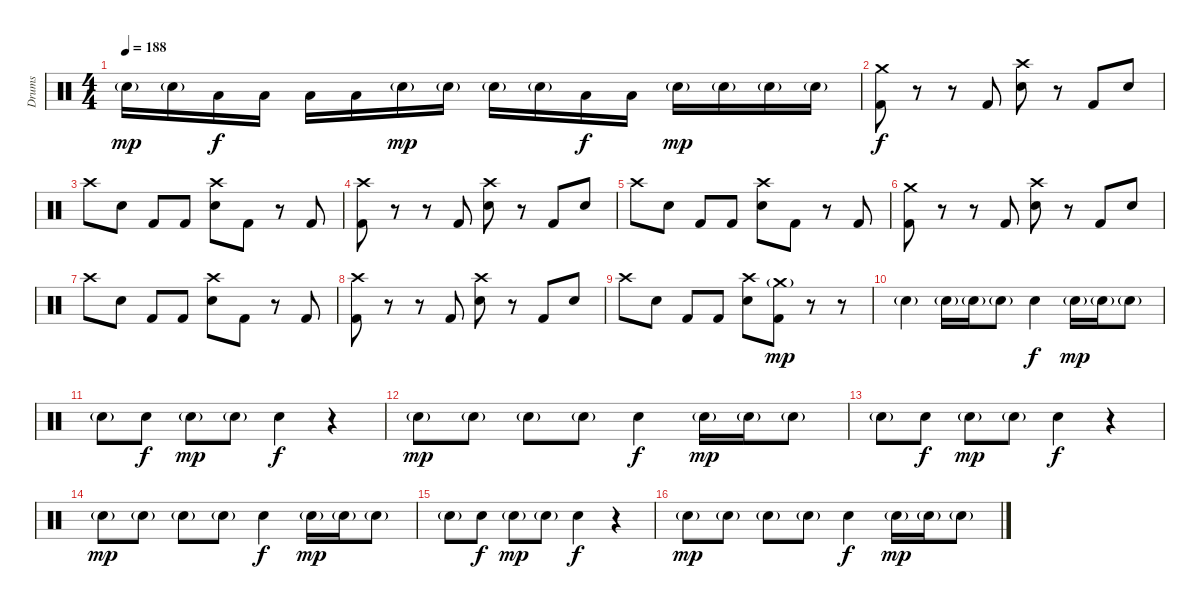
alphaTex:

\track ("Drums" "Drums") {instrument percussion}
\staff {score}
\articulation defaults
\ts (4 4)
\tempo 188
\clef neutral
\ks c "Electric Snare (hit)"{g}.16{dy mp} "Electric Snare (hit)"{g}.16 "Low Tom (hit)".16{dy f} "Low Tom (hit)".16 "Low Tom (hit)".16 "Low Tom (hit)".16 "Electric Snare (hit)"{g}.16{dy mp} "Electric Snare (hit)"{g}.16 "Electric Snare (hit)"{g}.16 "Electric Snare (hit)"{g}.16 "Low Tom (hit)".16{dy f} "Low Tom (hit)".16 "Electric Snare (hit)"{g}.16{dy mp} "Electric Snare (hit)"{g}.16 "Electric Snare (hit)"{g}.16 "Electric Snare (hit)"{g}.16
|
("Crash medium (hit)" "Kick (hit) 2").8{dy f} r.8 r.8 "Kick (hit) 2".8 ("Crash high (hit)" "Electric Snare (hit)").8 r.8 "Kick (hit) 2".8 "Electric Snare (hit)".8 |
"Crash high (hit)".8 "Electric Snare (hit)".8 "Kick (hit) 2".8 "Kick (hit) 2".8 ("Crash high (hit)" "Electric Snare (hit)").8 "Kick (hit) 2".8 r.8 "Kick (hit) 2".8 |
("Crash high (hit)" "Kick (hit) 2").8 r.8 r.8 "Kick (hit) 2".8 ("Crash high (hit)" "Electric Snare (hit)").8 r.8 "Kick (hit) 2".8 "Electric Snare (hit)".8 |
"Crash high (hit)".8 "Electric Snare (hit)".8 "Kick (hit) 2".8 "Kick (hit) 2".8 ("Crash high (hit)" "Electric Snare (hit)").8 "Kick (hit) 2".8 r.8 "Kick (hit) 2".8 |
("Crash medium (hit)" "Kick (hit) 2").8 r.8 r.8 "Kick (hit) 2".8 ("Crash high (hit)" "Electric Snare (hit)").8 r.8 "Kick (hit) 2".8 "Electric Snare (hit)".8 |
"Crash high (hit)".8 "Electric Snare (hit)".8 "Kick (hit) 2".8 "Kick (hit) 2".8 ("Crash high (hit)" "Electric Snare (hit)").8 "Kick (hit) 2".8 r.8 "Kick (hit) 2".8 |
("Crash high (hit)" "Kick (hit) 2").8 r.8 r.8 "Kick (hit) 2".8 ("Crash high (hit)" "Electric Snare (hit)").8 r.8 "Kick (hit) 2".8 "Electric Snare (hit)".8 |
"Crash high (hit)".8 "Electric Snare (hit)".8 "Kick (hit) 2".8 "Kick (hit) 2".8 ("Crash high (hit)" "Electric Snare (hit)").8 ("Crash medium (hit)"{g} "Kick (hit) 2").8{dy mp} r.8 r.8 |
"Electric Snare (hit)"{g}.4 "Electric Snare (hit)"{g}.16 "Electric Snare (hit)"{g}.16 "Electric Snare (hit)"{g}.8 "Electric Snare (hit)".4{dy f} "Electric Snare (hit)"{g}.16{dy mp} "Electric Snare (hit)"{g}.16 "Electric Snare (hit)"{g}.8 |
"Electric Snare (hit)"{g}.8 "Electric Snare (hit)".8{dy f} "Electric Snare (hit)"{g}.8{dy mp} "Electric Snare (hit)"{g}.8 "Electric Snare (hit)".4{dy f} r.4 |
"Electric Snare (hit)"{g}.8{dy mp} "Electric Snare (hit)"{g}.8 "Electric Snare (hit)"{g}.8 "Electric Snare (hit)"{g}.8 "Electric Snare (hit)".4{dy f} "Electric Snare (hit)"{g}.16{dy mp} "Electric Snare (hit)"{g}.16 "Electric Snare (hit)"{g}.8 |
"Electric Snare (hit)"{g}.8 "Electric Snare (hit)".8{dy f} "Electric Snare (hit)"{g}.8{dy mp} "Electric Snare (hit)"{g}.8 "Electric Snare (hit)".4{dy f} r.4 |
"Electric Snare (hit)"{g}.8{dy mp} "Electric Snare (hit)"{g}.8 "Electric Snare (hit)"{g}.8 "Electric Snare (hit)"{g}.8 "Electric Snare (hit)".4{dy f} "Electric Snare (hit)"{g}.16{dy mp} "Electric Snare (hit)"{g}.16 "Electric Snare (hit)"{g}.8 |
"Electric Snare (hit)"{g}.8 "Electric Snare (hit)".8{dy f} "Electric Snare (hit)"{g}.8{dy mp} "Electric Snare (hit)"{g}.8 "Electric Snare (hit)".4{dy f} r.4 |
"Electric Snare (hit)"{g}.8{dy mp} "Electric Snare (hit)"{g}.8 "Electric Snare (hit)"{g}.8 "Electric Snare (hit)"{g}.8 "Electric Snare (hit)".4{dy f} "Electric Snare (hit)"{g}.16{dy mp} "Electric Snare (hit)"{g}.16 "Electric Snare (hit)"{g}.8
